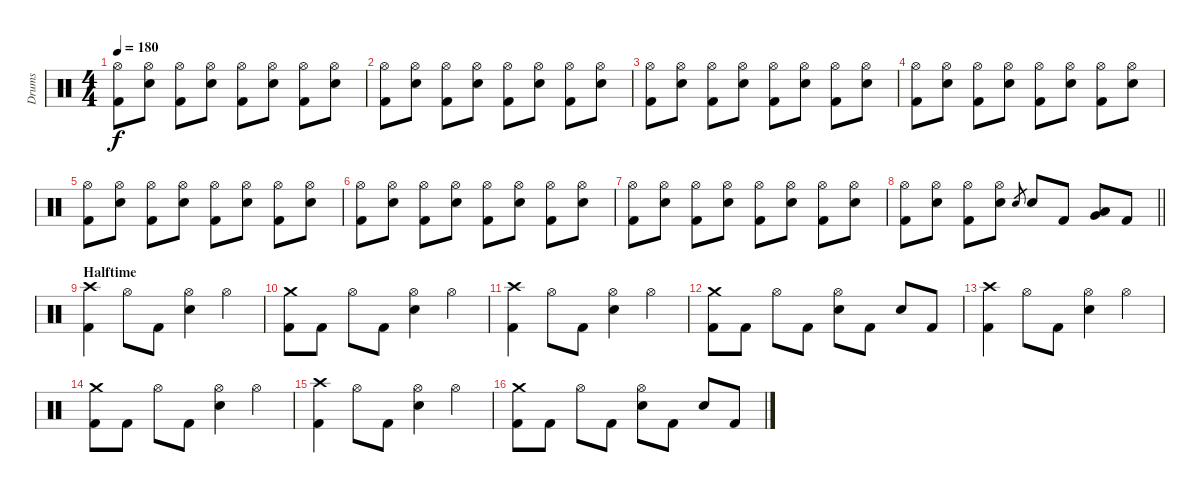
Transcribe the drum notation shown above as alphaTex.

\track ("Drums" "Drums") {instrument percussion}
\staff {score}
\articulation defaults
\ts (4 4)
\tempo 180
\clef neutral
\ks c
("Hi-Hat (open)" "Kick (hit) 2").8{dy f} ("Hi-Hat (open)" "Snare (hit) 2").8 ("Hi-Hat (open)" "Kick (hit) 2").8 ("Hi-Hat (open)" "Snare (hit) 2").8 ("Hi-Hat (open)" "Kick (hit) 2").8 ("Hi-Hat (open)" "Snare (hit) 2").8 ("Hi-Hat (open)" "Kick (hit) 2").8 ("Hi-Hat (open)" "Snare (hit) 2").8 |
("Hi-Hat (open)" "Kick (hit) 2").8 ("Hi-Hat (open)" "Snare (hit) 2").8 ("Hi-Hat (open)" "Kick (hit) 2").8 ("Hi-Hat (open)" "Snare (hit) 2").8 ("Hi-Hat (open)" "Kick (hit) 2").8 ("Hi-Hat (open)" "Snare (hit) 2").8 ("Hi-Hat (open)" "Kick (hit) 2").8 ("Hi-Hat (open)" "Snare (hit) 2").8 |
("Hi-Hat (open)" "Kick (hit) 2").8 ("Hi-Hat (open)" "Snare (hit) 2").8 ("Hi-Hat (open)" "Kick (hit) 2").8 ("Hi-Hat (open)" "Snare (hit) 2").8 ("Hi-Hat (open)" "Kick (hit) 2").8 ("Hi-Hat (open)" "Snare (hit) 2").8 ("Hi-Hat (open)" "Kick (hit) 2").8 ("Hi-Hat (open)" "Snare (hit) 2").8 |
("Hi-Hat (open)" "Kick (hit) 2").8 ("Hi-Hat (open)" "Snare (hit) 2").8 ("Hi-Hat (open)" "Kick (hit) 2").8 ("Hi-Hat (open)" "Snare (hit) 2").8 ("Hi-Hat (open)" "Kick (hit) 2").8 ("Hi-Hat (open)" "Snare (hit) 2").8 ("Hi-Hat (open)" "Kick (hit) 2").8 ("Hi-Hat (open)" "Snare (hit) 2").8 |
("Hi-Hat (open)" "Kick (hit) 2").8 ("Hi-Hat (open)" "Snare (hit) 2").8 ("Hi-Hat (open)" "Kick (hit) 2").8 ("Hi-Hat (open)" "Snare (hit) 2").8 ("Hi-Hat (open)" "Kick (hit) 2").8 ("Hi-Hat (open)" "Snare (hit) 2").8 ("Hi-Hat (open)" "Kick (hit) 2").8 ("Hi-Hat (open)" "Snare (hit) 2").8 |
("Hi-Hat (open)" "Kick (hit) 2").8 ("Hi-Hat (open)" "Snare (hit) 2").8 ("Hi-Hat (open)" "Kick (hit) 2").8 ("Hi-Hat (open)" "Snare (hit) 2").8 ("Hi-Hat (open)" "Kick (hit) 2").8 ("Hi-Hat (open)" "Snare (hit) 2").8 ("Hi-Hat (open)" "Kick (hit) 2").8 ("Hi-Hat (open)" "Snare (hit) 2").8 |
("Hi-Hat (open)" "Kick (hit) 2").8 ("Hi-Hat (open)" "Snare (hit) 2").8 ("Hi-Hat (open)" "Kick (hit) 2").8 ("Hi-Hat (open)" "Snare (hit) 2").8 ("Hi-Hat (open)" "Kick (hit) 2").8 ("Hi-Hat (open)" "Snare (hit) 2").8 ("Hi-Hat (open)" "Kick (hit) 2").8 ("Hi-Hat (open)" "Snare (hit) 2").8 |
\barLineRight lightlight
("Hi-Hat (open)" "Kick (hit) 2").8 ("Hi-Hat (open)" "Snare (hit) 2").8 ("Hi-Hat (open)" "Kick (hit) 2").8 ("Hi-Hat (open)" "Snare (hit) 2").8 "Snare (hit) 2".8{gr} "Snare (hit) 2".8 "Kick (hit) 2".8 ("Very Low Tom (hit)" "Low Floor Tom (hit)").8 "Kick (hit) 2".8 |
\section ("" "Halftime")
("Crash high (hit)" "Kick (hit) 2").4 "Hi-Hat (open)".8 "Kick (hit) 2".8 ("Hi-Hat (open)" "Snare (hit) 2").4 "Hi-Hat (open)".4 |
("Crash medium (hit)" "Kick (hit) 2").8 "Kick (hit) 2".8 "Hi-Hat (open)".8 "Kick (hit) 2".8 ("Hi-Hat (open)" "Snare (hit) 2").4 "Hi-Hat (open)".4 |
("Crash high (hit)" "Kick (hit) 2").4 "Hi-Hat (open)".8 "Kick (hit) 2".8 ("Hi-Hat (open)" "Snare (hit) 2").4 "Hi-Hat (open)".4 |
("Crash medium (hit)" "Kick (hit) 2").8 "Kick (hit) 2".8 "Hi-Hat (open)".8 "Kick (hit) 2".8 ("Hi-Hat (open)" "Snare (hit) 2").8 "Kick (hit) 2".8 "Snare (hit) 2".8 "Kick (hit) 2".8 |
("Crash high (hit)" "Kick (hit) 2").4 "Hi-Hat (open)".8 "Kick (hit) 2".8 ("Hi-Hat (open)" "Snare (hit) 2").4 "Hi-Hat (open)".4 |
("Crash medium (hit)" "Kick (hit) 2").8 "Kick (hit) 2".8 "Hi-Hat (open)".8 "Kick (hit) 2".8 ("Hi-Hat (open)" "Snare (hit) 2").4 "Hi-Hat (open)".4 |
("Crash high (hit)" "Kick (hit) 2").4 "Hi-Hat (open)".8 "Kick (hit) 2".8 ("Hi-Hat (open)" "Snare (hit) 2").4 "Hi-Hat (open)".4 |
("Crash medium (hit)" "Kick (hit) 2").8 "Kick (hit) 2".8 "Hi-Hat (open)".8 "Kick (hit) 2".8 ("Hi-Hat (open)" "Snare (hit) 2").8 "Kick (hit) 2".8 "Snare (hit) 2".8 "Kick (hit) 2".8
